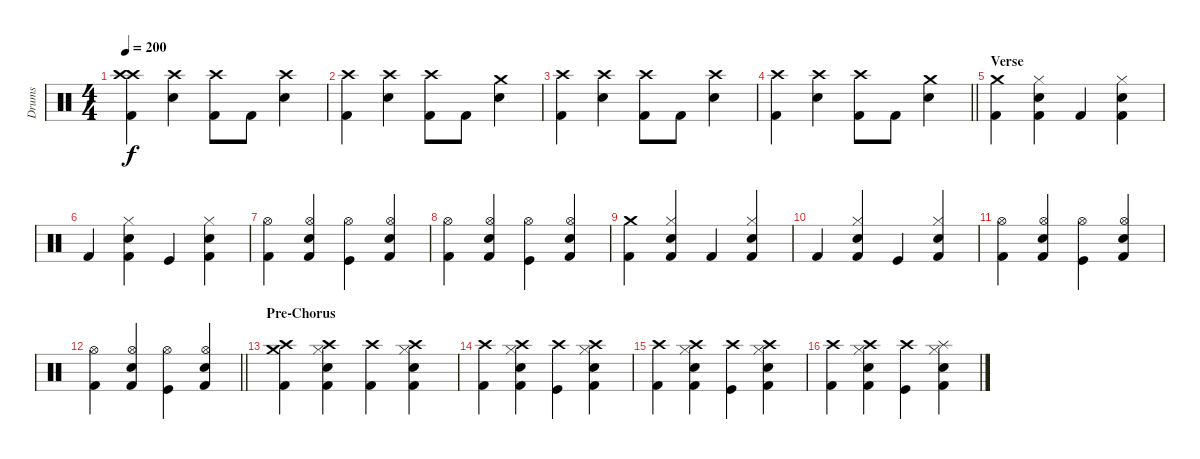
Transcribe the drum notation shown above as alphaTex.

\track ("Drums" "Drums") {instrument percussion}
\staff {score}
\articulation defaults
\ts (4 4)
\tempo 200
\clef neutral
\ks c
("Crash high (hit)" "Crash high (hit)" "Kick (hit) 2").4{dy f} ("Crash high (hit)" "Electric Snare (hit)").4 ("Crash high (hit)" "Kick (hit) 2").8 "Kick (hit) 2".8 ("Crash high (hit)" "Electric Snare (hit)").4 |
("Crash high (hit)" "Kick (hit) 2").4 ("Crash high (hit)" "Electric Snare (hit)").4 ("Crash high (hit)" "Kick (hit) 2").8 "Kick (hit) 2".8 ("Crash medium (hit)" "Electric Snare (hit)").4 |
("Crash high (hit)" "Kick (hit) 2").4 ("Crash high (hit)" "Electric Snare (hit)").4 ("Crash high (hit)" "Kick (hit) 2").8 "Kick (hit) 2".8 ("Crash high (hit)" "Electric Snare (hit)").4 |
\barLineRight lightlight
("Crash high (hit)" "Kick (hit) 2").4 ("Crash high (hit)" "Electric Snare (hit)").4 ("Crash high (hit)" "Kick (hit) 2").8 "Kick (hit) 2".8 ("Crash medium (hit)" "Electric Snare (hit)").4 |
\section ("" "Verse")
("Crash medium (hit)" "Kick (hit) 2").4 ("Hi-Hat (closed)" "Electric Snare (hit)" "Kick (hit) 2").4 "Kick (hit) 2".4 ("Hi-Hat (closed)" "Electric Snare (hit)" "Kick (hit) 2").4 |
"Kick (hit) 2".4 ("Hi-Hat (closed)" "Electric Snare (hit)" "Kick (hit) 2").4 "Kick (hit)".4 ("Hi-Hat (closed)" "Electric Snare (hit)" "Kick (hit) 2").4 |
("Hi-Hat (open)" "Kick (hit) 2").4 ("Hi-Hat (open)" "Snare (hit) 2" "Kick (hit) 2").4 ("Hi-Hat (open)" "Kick (hit)").4 ("Hi-Hat (open)" "Snare (hit) 2" "Kick (hit) 2").4 |
("Hi-Hat (open)" "Kick (hit) 2").4 ("Hi-Hat (open)" "Snare (hit) 2" "Kick (hit) 2").4 ("Hi-Hat (open)" "Kick (hit)").4 ("Hi-Hat (open)" "Snare (hit) 2" "Kick (hit) 2").4 |
("Crash medium (hit)" "Kick (hit) 2").4 ("Hi-Hat (closed)" "Snare (hit) 2" "Kick (hit) 2").4 "Kick (hit) 2".4 ("Hi-Hat (closed)" "Snare (hit) 2" "Kick (hit) 2").4 |
"Kick (hit) 2".4 ("Hi-Hat (closed)" "Snare (hit) 2" "Kick (hit) 2").4 "Kick (hit)".4 ("Hi-Hat (closed)" "Snare (hit) 2" "Kick (hit) 2").4 |
("Hi-Hat (open)" "Kick (hit) 2").4 ("Hi-Hat (open)" "Snare (hit) 2" "Kick (hit) 2").4 ("Hi-Hat (open)" "Kick (hit)").4 ("Hi-Hat (open)" "Snare (hit) 2" "Kick (hit) 2").4 |
\barLineRight lightlight
("Hi-Hat (open)" "Kick (hit) 2").4 ("Hi-Hat (open)" "Snare (hit) 2" "Kick (hit) 2").4 ("Hi-Hat (open)" "Kick (hit)").4 ("Hi-Hat (open)" "Snare (hit) 2" "Kick (hit) 2").4 |
\section ("" "Pre-Chorus")
("Crash high (hit)" "Crash medium (hit)" "Kick (hit) 2").4 ("Crash high (hit)" "Hi-Hat (closed)" "Snare (hit) 2" "Kick (hit) 2").4 ("Crash high (hit)" "Kick (hit) 2").4 ("Crash high (hit)" "Hi-Hat (closed)" "Snare (hit) 2" "Kick (hit) 2").4 |
("Crash high (hit)" "Kick (hit) 2").4 ("Crash high (hit)" "Hi-Hat (closed)" "Snare (hit) 2" "Kick (hit) 2").4 ("Crash high (hit)" "Kick (hit)").4 ("Crash high (hit)" "Hi-Hat (closed)" "Snare (hit) 2" "Kick (hit) 2").4 |
("Crash high (hit)" "Kick (hit) 2").4 ("Crash high (hit)" "Hi-Hat (closed)" "Snare (hit) 2" "Kick (hit) 2").4 ("Crash high (hit)" "Kick (hit)").4 ("Crash high (hit)" "Hi-Hat (closed)" "Snare (hit) 2" "Kick (hit) 2").4 |
("Crash high (hit)" "Kick (hit) 2").4 ("Crash high (hit)" "Hi-Hat (closed)" "Snare (hit) 2" "Kick (hit) 2").4 ("Crash high (hit)" "Kick (hit)").4 ("Splash (hit)" "Hi-Hat (closed)" "Snare (hit) 2" "Kick (hit) 2").4
